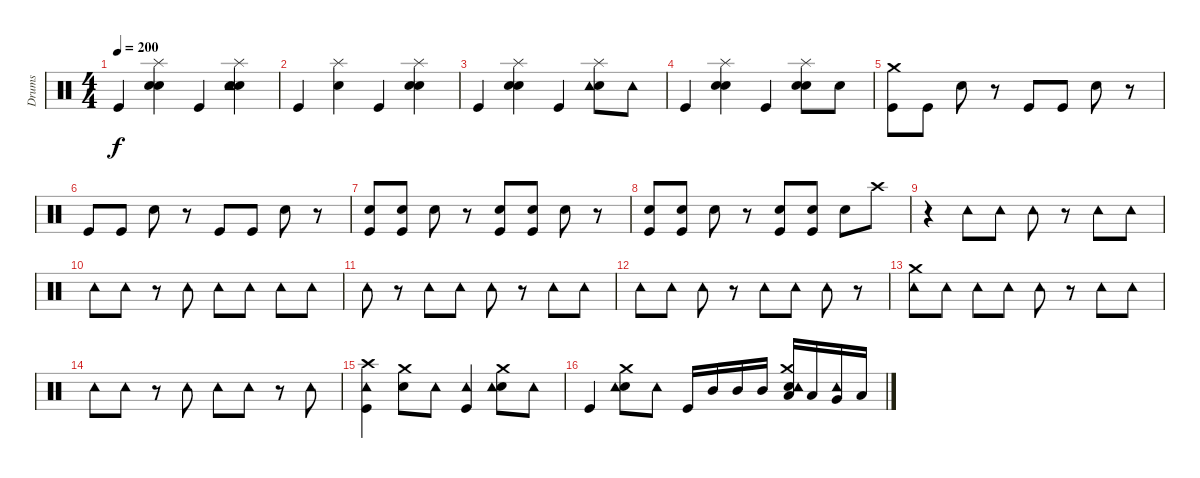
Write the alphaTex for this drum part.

\track ("Drums" "Drums") {instrument percussion}
\staff {score}
\articulation defaults
\ts (4 4)
\tempo 200
\clef neutral
\ks c "Kick (hit)".4{dy f}
("Snare (hit) 2" "Electric Snare (hit)" "Splash (hit)").4 "Kick (hit)".4 ("Snare (hit) 2" "Electric Snare (hit)" "Tambourine (hit)" "Splash (hit)").4 |
"Kick (hit)".4 ("Snare (hit) 2" "Splash (hit)").4 "Kick (hit)".4 ("Snare (hit) 2" "Electric Snare (hit)" "Splash (hit)").4 |
"Kick (hit)".4 ("Snare (hit) 2" "Electric Snare (hit)" "Splash (hit)").4 "Kick (hit)".4 ("Snare (hit) 2" "Tambourine (hit)" "Splash (hit)").8 "Tambourine (hit)".8 |
"Kick (hit)".4 ("Snare (hit) 2" "Electric Snare (hit)" "Splash (hit)").4 "Kick (hit)".4 ("Snare (hit) 2" "Electric Snare (hit)" "Splash (hit)").8 "Electric Snare (hit)".8 |
("Kick (hit)" "Crash medium (hit)").8 "Kick (hit)".8 "Electric Snare (hit)".8 r.8 "Kick (hit)".8 "Kick (hit)".8 "Electric Snare (hit)".8 r.8 |
"Kick (hit)".8 "Kick (hit)".8 "Electric Snare (hit)".8 r.8 "Kick (hit)".8 "Kick (hit)".8 "Electric Snare (hit)".8 r.8 |
("Kick (hit)" "Snare (hit) 2").8 ("Kick (hit)" "Snare (hit) 2").8 "Electric Snare (hit)".8 r.8 ("Kick (hit)" "Snare (hit) 2").8 ("Kick (hit)" "Snare (hit) 2").8 "Electric Snare (hit)".8 r.8 |
("Kick (hit)" "Snare (hit) 2").8 ("Kick (hit)" "Snare (hit) 2").8 "Electric Snare (hit)".8 r.8 ("Kick (hit)" "Snare (hit) 2").8 ("Kick (hit)" "Snare (hit) 2").8 "Electric Snare (hit)".8 "Crash high (hit)".8 |
r.4 "Tambourine (hit)".8 "Tambourine (hit)".8 "Tambourine (hit)".8 r.8 "Tambourine (hit)".8 "Tambourine (hit)".8 |
"Tambourine (hit)".8 "Tambourine (hit)".8 r.8 "Tambourine (hit)".8 "Tambourine (hit)".8 "Tambourine (hit)".8 "Tambourine (hit)".8 "Tambourine (hit)".8 |
"Tambourine (hit)".8 r.8 "Tambourine (hit)".8 "Tambourine (hit)".8 "Tambourine (hit)".8 r.8 "Tambourine (hit)".8 "Tambourine (hit)".8 |
"Tambourine (hit)".8 "Tambourine (hit)".8 "Tambourine (hit)".8 r.8 "Tambourine (hit)".8 "Tambourine (hit)".8 "Tambourine (hit)".8 r.8 |
("Tambourine (hit)" "Crash medium (hit)").8 "Tambourine (hit)".8 "Tambourine (hit)".8 "Tambourine (hit)".8 "Tambourine (hit)".8 r.8 "Tambourine (hit)".8 "Tambourine (hit)".8 |
"Tambourine (hit)".8 "Tambourine (hit)".8 r.8 "Tambourine (hit)".8 "Tambourine (hit)".8 "Tambourine (hit)".8 r.8 "Tambourine (hit)".8 |
("Kick (hit)" "Crash high (hit)" "Tambourine (hit)").4 ("Snare (hit) 2" "Crash medium (hit)").8 "Tambourine (hit)".8 ("Kick (hit)" "Tambourine (hit)").4 ("Snare (hit) 2" "Tambourine (hit)" "Crash medium (hit)").8 "Tambourine (hit)".8 |
"Kick (hit)".4 ("Snare (hit) 2" "Tambourine (hit)" "Crash medium (hit)").8 "Tambourine (hit)".8 "Kick (hit)".16 "Mid Tom (hit)".16 "Mid Tom (hit)".16 "Mid Tom (hit)".16 ("Snare (hit) 2" "Low Tom (hit)" "Tambourine (hit)" "Crash medium (hit)").16 "Low Tom (hit)".16 ("Very Low Tom (hit)" "Tambourine (hit)").16 "Low Floor Tom (hit)".16
